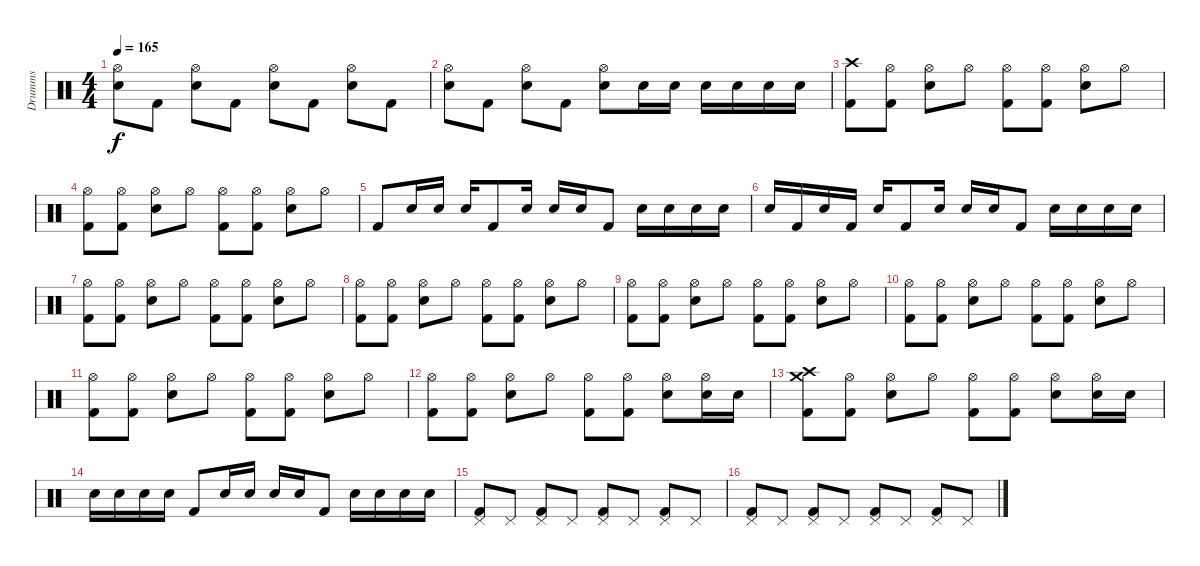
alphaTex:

\track ("Drumms" "Drumms") {instrument percussion}
\staff {score}
\articulation defaults
\ts (4 4)
\tempo 165
\clef neutral
\ks c
("Hi-Hat (open)" "Electric Snare (hit)").8{dy f} "Kick (hit) 2".8 ("Hi-Hat (open)" "Electric Snare (hit)").8 "Kick (hit) 2".8 ("Hi-Hat (open)" "Electric Snare (hit)").8 "Kick (hit) 2".8 ("Hi-Hat (open)" "Electric Snare (hit)").8 "Kick (hit) 2".8 |
("Hi-Hat (open)" "Electric Snare (hit)").8 "Kick (hit) 2".8 ("Hi-Hat (open)" "Electric Snare (hit)").8 "Kick (hit) 2".8 ("Hi-Hat (open)" "Electric Snare (hit)").8 "Electric Snare (hit)".16 "Electric Snare (hit)".16 "Electric Snare (hit)".16 "Electric Snare (hit)".16 "Electric Snare (hit)".16 "Electric Snare (hit)".16 |
("Crash high (hit)" "Kick (hit) 2").8 ("Hi-Hat (open)" "Kick (hit) 2").8 ("Hi-Hat (open)" "Electric Snare (hit)").8 "Hi-Hat (open)".8 ("Hi-Hat (open)" "Kick (hit) 2").8 ("Hi-Hat (open)" "Kick (hit) 2").8 ("Hi-Hat (open)" "Electric Snare (hit)").8 "Hi-Hat (open)".8 |
("Hi-Hat (open)" "Kick (hit) 2").8 ("Hi-Hat (open)" "Kick (hit) 2").8 ("Hi-Hat (open)" "Electric Snare (hit)").8 "Hi-Hat (open)".8 ("Hi-Hat (open)" "Kick (hit) 2").8 ("Hi-Hat (open)" "Kick (hit) 2").8 ("Hi-Hat (open)" "Electric Snare (hit)").8 "Hi-Hat (open)".8 |
"Kick (hit) 2".8 "Electric Snare (hit)".16 "Electric Snare (hit)".16 "Electric Snare (hit)".16 "Kick (hit) 2".8 "Electric Snare (hit)".16 "Electric Snare (hit)".16 "Electric Snare (hit)".16 "Kick (hit) 2".8 "Electric Snare (hit)".16 "Electric Snare (hit)".16 "Electric Snare (hit)".16 "Electric Snare (hit)".16 |
"Electric Snare (hit)".16 "Kick (hit) 2".16 "Electric Snare (hit)".16 "Kick (hit) 2".16 "Electric Snare (hit)".16 "Kick (hit) 2".8 "Electric Snare (hit)".16 "Electric Snare (hit)".16 "Electric Snare (hit)".16 "Kick (hit) 2".8 "Electric Snare (hit)".16 "Electric Snare (hit)".16 "Electric Snare (hit)".16 "Electric Snare (hit)".16 |
("Hi-Hat (open)" "Kick (hit) 2").8 ("Hi-Hat (open)" "Kick (hit) 2").8 ("Hi-Hat (open)" "Electric Snare (hit)").8 "Hi-Hat (open)".8 ("Hi-Hat (open)" "Kick (hit) 2").8 ("Hi-Hat (open)" "Kick (hit) 2").8 ("Hi-Hat (open)" "Electric Snare (hit)").8 "Hi-Hat (open)".8 |
("Hi-Hat (open)" "Kick (hit) 2").8 ("Hi-Hat (open)" "Kick (hit) 2").8 ("Hi-Hat (open)" "Electric Snare (hit)").8 "Hi-Hat (open)".8 ("Hi-Hat (open)" "Kick (hit) 2").8 ("Hi-Hat (open)" "Kick (hit) 2").8 ("Hi-Hat (open)" "Electric Snare (hit)").8 "Hi-Hat (open)".8 |
("Hi-Hat (open)" "Kick (hit) 2").8 ("Hi-Hat (open)" "Kick (hit) 2").8 ("Hi-Hat (open)" "Electric Snare (hit)").8 "Hi-Hat (open)".8 ("Hi-Hat (open)" "Kick (hit) 2").8 ("Hi-Hat (open)" "Kick (hit) 2").8 ("Hi-Hat (open)" "Electric Snare (hit)").8 "Hi-Hat (open)".8 |
("Hi-Hat (open)" "Kick (hit) 2").8 ("Hi-Hat (open)" "Kick (hit) 2").8 ("Hi-Hat (open)" "Electric Snare (hit)").8 "Hi-Hat (open)".8 ("Hi-Hat (open)" "Kick (hit) 2").8 ("Hi-Hat (open)" "Kick (hit) 2").8 ("Hi-Hat (open)" "Electric Snare (hit)").8 "Hi-Hat (open)".8 |
("Hi-Hat (open)" "Kick (hit) 2").8 ("Hi-Hat (open)" "Kick (hit) 2").8 ("Hi-Hat (open)" "Electric Snare (hit)").8 "Hi-Hat (open)".8 ("Hi-Hat (open)" "Kick (hit) 2").8 ("Hi-Hat (open)" "Kick (hit) 2").8 ("Hi-Hat (open)" "Electric Snare (hit)").8 "Hi-Hat (open)".8 |
("Hi-Hat (open)" "Kick (hit) 2").8 ("Hi-Hat (open)" "Kick (hit) 2").8 ("Hi-Hat (open)" "Electric Snare (hit)").8 "Hi-Hat (open)".8 ("Hi-Hat (open)" "Kick (hit) 2").8 ("Hi-Hat (open)" "Kick (hit) 2").8 ("Hi-Hat (open)" "Electric Snare (hit)").8 ("Hi-Hat (open)" "Electric Snare (hit)").16 "Electric Snare (hit)".16 |
("Crash medium (hit)" "Crash high (hit)" "Kick (hit) 2").8 ("Hi-Hat (open)" "Kick (hit) 2").8 ("Hi-Hat (open)" "Electric Snare (hit)").8 "Hi-Hat (open)".8 ("Hi-Hat (open)" "Kick (hit) 2").8 ("Hi-Hat (open)" "Kick (hit) 2").8 ("Hi-Hat (open)" "Electric Snare (hit)").8 ("Hi-Hat (open)" "Electric Snare (hit)").16 "Electric Snare (hit)".16 |
"Electric Snare (hit)".16 "Electric Snare (hit)".16 "Electric Snare (hit)".16 "Electric Snare (hit)".16 "Kick (hit) 2".8 "Electric Snare (hit)".16 "Electric Snare (hit)".16 "Electric Snare (hit)".16 "Electric Snare (hit)".16 "Kick (hit) 2".8 "Electric Snare (hit)".16 "Electric Snare (hit)".16 "Electric Snare (hit)".16 "Electric Snare (hit)".16 |
("Pedal Hi-Hat (hit)" "Kick (hit) 2").8 "Pedal Hi-Hat (hit)".8 ("Pedal Hi-Hat (hit)" "Kick (hit) 2").8 "Pedal Hi-Hat (hit)".8 ("Pedal Hi-Hat (hit)" "Kick (hit) 2").8 "Pedal Hi-Hat (hit)".8 ("Pedal Hi-Hat (hit)" "Kick (hit) 2").8 "Pedal Hi-Hat (hit)".8 |
("Pedal Hi-Hat (hit)" "Kick (hit) 2").8 "Pedal Hi-Hat (hit)".8 ("Pedal Hi-Hat (hit)" "Kick (hit) 2").8 "Pedal Hi-Hat (hit)".8 ("Pedal Hi-Hat (hit)" "Kick (hit) 2").8 "Pedal Hi-Hat (hit)".8 ("Pedal Hi-Hat (hit)" "Kick (hit) 2").8 "Pedal Hi-Hat (hit)".8
